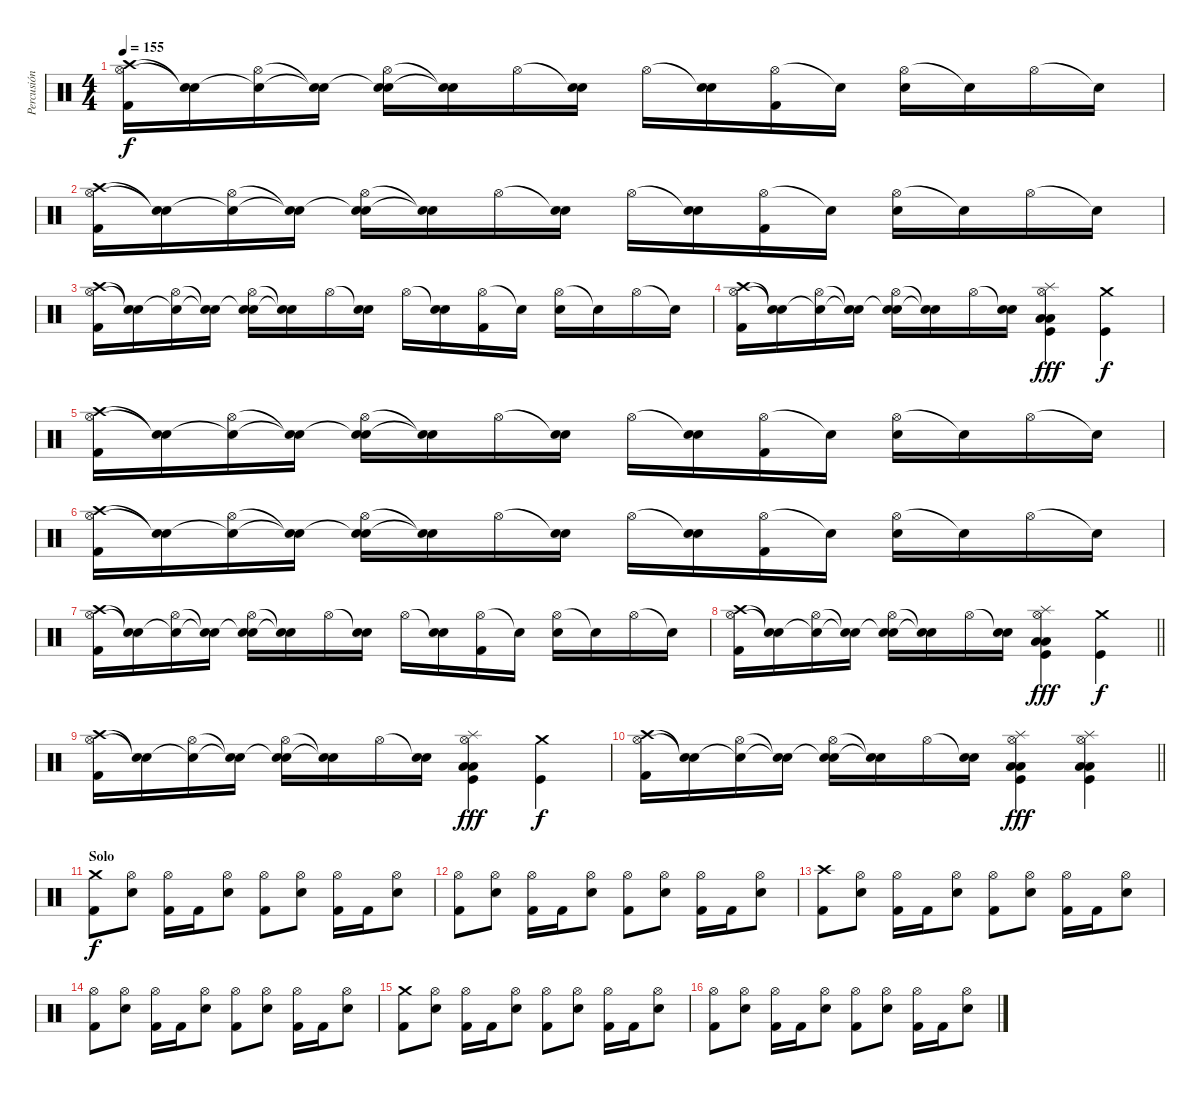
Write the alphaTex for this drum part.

\track ("Percusión (Erik)" "Percusión ") {instrument percussion}
\staff {score}
\articulation defaults
\ts (4 4)
\tempo 155
\clef neutral
\ks c
("Crash high (hit)" "Hi-Hat (open)" "Kick (hit) 2").16{dy f volume 14} ("Snare (hit)"{t} "Snare (hit)"{t}).16 ("Snare (hit)"{t} "Hi-Hat (open)").16 ("Snare (hit)"{t} "Snare (hit)"{t}).16 ("Snare (hit)"{t} "Hi-Hat (open)" "Electric Snare (hit)").16 ("Snare (hit)"{t} "Snare (hit)"{t}).16 "Hi-Hat (open)".16 ("Snare (hit)"{t} "Electric Snare (hit)").16 "Hi-Hat (open)".16 ("Snare (hit)"{t} "Electric Snare (hit)").16 ("Hi-Hat (open)" "Kick (hit) 2").16 "Snare (hit)"{t}.16 ("Hi-Hat (open)" "Electric Snare (hit)").16 "Snare (hit)"{t}.16 "Hi-Hat (open)".16 "Snare (hit)"{t}.16 |
("Crash high (hit)" "Hi-Hat (open)" "Kick (hit) 2").16{volume 14} ("Snare (hit)"{t} "Snare (hit)"{t}).16 ("Snare (hit)"{t} "Hi-Hat (open)").16 ("Snare (hit)"{t} "Snare (hit)"{t}).16 ("Snare (hit)"{t} "Hi-Hat (open)" "Electric Snare (hit)").16 ("Snare (hit)"{t} "Snare (hit)"{t}).16 "Hi-Hat (open)".16 ("Snare (hit)"{t} "Electric Snare (hit)").16 "Hi-Hat (open)".16 ("Snare (hit)"{t} "Electric Snare (hit)").16 ("Hi-Hat (open)" "Kick (hit) 2").16 "Snare (hit)"{t}.16 ("Hi-Hat (open)" "Electric Snare (hit)").16 "Snare (hit)"{t}.16 "Hi-Hat (open)".16 "Snare (hit)"{t}.16 |
("Crash high (hit)" "Hi-Hat (open)" "Kick (hit) 2").16{volume 14} ("Snare (hit)"{t} "Snare (hit)"{t}).16 ("Snare (hit)"{t} "Hi-Hat (open)").16 ("Snare (hit)"{t} "Snare (hit)"{t}).16 ("Snare (hit)"{t} "Hi-Hat (open)" "Electric Snare (hit)").16 ("Snare (hit)"{t} "Snare (hit)"{t}).16 "Hi-Hat (open)".16 ("Snare (hit)"{t} "Electric Snare (hit)").16 "Hi-Hat (open)".16 ("Snare (hit)"{t} "Electric Snare (hit)").16 ("Hi-Hat (open)" "Kick (hit) 2").16 "Snare (hit)"{t}.16 ("Hi-Hat (open)" "Electric Snare (hit)").16 "Snare (hit)"{t}.16 "Hi-Hat (open)".16 "Snare (hit)"{t}.16 |
("Crash high (hit)" "Hi-Hat (open)" "Kick (hit) 2").16{volume 14} ("Snare (hit)"{t} "Snare (hit)"{t}).16 ("Snare (hit)"{t} "Hi-Hat (open)").16 ("Snare (hit)"{t} "Snare (hit)"{t}).16 ("Snare (hit)"{t} "Hi-Hat (open)" "Electric Snare (hit)").16 ("Snare (hit)"{t} "Snare (hit)"{t}).16 "Hi-Hat (open)".16 ("Snare (hit)"{t} "Electric Snare (hit)").16 ("Hi-Hat (open)" "Low Floor Tom (hit)" "Low Tom (hit)" "Kick (hit)" "Splash (hit)").4{dy fff} ("Crash medium (hit)" "Kick (hit)").4{dy f} |
("Crash high (hit)" "Hi-Hat (open)" "Kick (hit) 2").16{volume 14} ("Snare (hit)"{t} "Snare (hit)"{t}).16 ("Snare (hit)"{t} "Hi-Hat (open)").16 ("Snare (hit)"{t} "Snare (hit)"{t}).16 ("Snare (hit)"{t} "Hi-Hat (open)" "Electric Snare (hit)").16 ("Snare (hit)"{t} "Snare (hit)"{t}).16 "Hi-Hat (open)".16 ("Snare (hit)"{t} "Electric Snare (hit)").16 "Hi-Hat (open)".16 ("Snare (hit)"{t} "Electric Snare (hit)").16 ("Hi-Hat (open)" "Kick (hit) 2").16 "Snare (hit)"{t}.16 ("Hi-Hat (open)" "Electric Snare (hit)").16 "Snare (hit)"{t}.16 "Hi-Hat (open)".16 "Snare (hit)"{t}.16 |
("Crash high (hit)" "Hi-Hat (open)" "Kick (hit) 2").16{volume 14} ("Snare (hit)"{t} "Snare (hit)"{t}).16 ("Snare (hit)"{t} "Hi-Hat (open)").16 ("Snare (hit)"{t} "Snare (hit)"{t}).16 ("Snare (hit)"{t} "Hi-Hat (open)" "Electric Snare (hit)").16 ("Snare (hit)"{t} "Snare (hit)"{t}).16 "Hi-Hat (open)".16 ("Snare (hit)"{t} "Electric Snare (hit)").16 "Hi-Hat (open)".16 ("Snare (hit)"{t} "Electric Snare (hit)").16 ("Hi-Hat (open)" "Kick (hit) 2").16 "Snare (hit)"{t}.16 ("Hi-Hat (open)" "Electric Snare (hit)").16 "Snare (hit)"{t}.16 "Hi-Hat (open)".16 "Snare (hit)"{t}.16 |
("Crash high (hit)" "Hi-Hat (open)" "Kick (hit) 2").16{volume 14} ("Snare (hit)"{t} "Snare (hit)"{t}).16 ("Snare (hit)"{t} "Hi-Hat (open)").16 ("Snare (hit)"{t} "Snare (hit)"{t}).16 ("Snare (hit)"{t} "Hi-Hat (open)" "Electric Snare (hit)").16 ("Snare (hit)"{t} "Snare (hit)"{t}).16 "Hi-Hat (open)".16 ("Snare (hit)"{t} "Electric Snare (hit)").16 "Hi-Hat (open)".16 ("Snare (hit)"{t} "Electric Snare (hit)").16 ("Hi-Hat (open)" "Kick (hit) 2").16 "Snare (hit)"{t}.16 ("Hi-Hat (open)" "Electric Snare (hit)").16 "Snare (hit)"{t}.16 "Hi-Hat (open)".16 "Snare (hit)"{t}.16 |
\barLineRight lightlight
("Crash high (hit)" "Hi-Hat (open)" "Kick (hit) 2").16{volume 14} ("Snare (hit)"{t} "Snare (hit)"{t}).16 ("Snare (hit)"{t} "Hi-Hat (open)").16 ("Snare (hit)"{t} "Snare (hit)"{t}).16 ("Snare (hit)"{t} "Hi-Hat (open)" "Electric Snare (hit)").16 ("Snare (hit)"{t} "Snare (hit)"{t}).16 "Hi-Hat (open)".16 ("Snare (hit)"{t} "Electric Snare (hit)").16 ("Hi-Hat (open)" "Low Floor Tom (hit)" "Low Tom (hit)" "Kick (hit)" "Splash (hit)").4{dy fff} ("Crash medium (hit)" "Kick (hit)").4{dy f} |
("Crash high (hit)" "Hi-Hat (open)" "Kick (hit) 2").16{volume 14} ("Snare (hit)"{t} "Snare (hit)"{t}).16 ("Snare (hit)"{t} "Hi-Hat (open)").16 ("Snare (hit)"{t} "Snare (hit)"{t}).16 ("Snare (hit)"{t} "Hi-Hat (open)" "Electric Snare (hit)").16 ("Snare (hit)"{t} "Snare (hit)"{t}).16 "Hi-Hat (open)".16 ("Snare (hit)"{t} "Electric Snare (hit)").16 ("Hi-Hat (open)" "Low Floor Tom (hit)" "Low Tom (hit)" "Kick (hit)" "Splash (hit)").4{dy fff} ("Crash medium (hit)" "Kick (hit)").4{dy f} |
\barLineRight lightlight
("Crash high (hit)" "Hi-Hat (open)" "Kick (hit) 2").16{volume 14} ("Snare (hit)"{t} "Snare (hit)"{t}).16 ("Snare (hit)"{t} "Hi-Hat (open)").16 ("Snare (hit)"{t} "Snare (hit)"{t}).16 ("Snare (hit)"{t} "Hi-Hat (open)" "Electric Snare (hit)").16 ("Snare (hit)"{t} "Snare (hit)"{t}).16 "Hi-Hat (open)".16 ("Snare (hit)"{t} "Electric Snare (hit)").16 ("Hi-Hat (open)" "Low Floor Tom (hit)" "Low Tom (hit)" "Kick (hit)" "Splash (hit)").4{dy fff} ("Hi-Hat (open)" "Low Floor Tom (hit)" "Low Tom (hit)" "Kick (hit)" "Splash (hit)").4 |
\section ("" "Solo")
\ks aminor
("Kick (hit) 2" "Crash medium (hit)").8{dy f} ("Snare (hit) 2" "Hi-Hat (open)").8 ("Kick (hit) 2" "Hi-Hat (open)").16 "Kick (hit) 2".16 ("Snare (hit) 2" "Hi-Hat (open)").8 ("Kick (hit) 2" "Hi-Hat (open)").8 ("Snare (hit) 2" "Hi-Hat (open)").8 ("Kick (hit) 2" "Hi-Hat (open)").16 "Kick (hit) 2".16 ("Snare (hit) 2" "Hi-Hat (open)").8 |
("Kick (hit) 2" "Hi-Hat (open)").8 ("Snare (hit) 2" "Hi-Hat (open)").8 ("Kick (hit) 2" "Hi-Hat (open)").16 "Kick (hit) 2".16 ("Snare (hit) 2" "Hi-Hat (open)").8 ("Kick (hit) 2" "Hi-Hat (open)").8 ("Snare (hit) 2" "Hi-Hat (open)").8 ("Kick (hit) 2" "Hi-Hat (open)").16 "Kick (hit) 2".16 ("Snare (hit) 2" "Hi-Hat (open)").8 |
("Kick (hit) 2" "Crash high (hit)").8 ("Snare (hit) 2" "Hi-Hat (open)").8 ("Kick (hit) 2" "Hi-Hat (open)").16 "Kick (hit) 2".16 ("Snare (hit) 2" "Hi-Hat (open)").8 ("Kick (hit) 2" "Hi-Hat (open)").8 ("Snare (hit) 2" "Hi-Hat (open)").8 ("Kick (hit) 2" "Hi-Hat (open)").16 "Kick (hit) 2".16 ("Snare (hit) 2" "Hi-Hat (open)").8 |
("Kick (hit) 2" "Hi-Hat (open)").8 ("Snare (hit) 2" "Hi-Hat (open)").8 ("Kick (hit) 2" "Hi-Hat (open)").16 "Kick (hit) 2".16 ("Snare (hit) 2" "Hi-Hat (open)").8 ("Kick (hit) 2" "Hi-Hat (open)").8 ("Snare (hit) 2" "Hi-Hat (open)").8 ("Kick (hit) 2" "Hi-Hat (open)").16 "Kick (hit) 2".16 ("Snare (hit) 2" "Hi-Hat (open)").8 |
("Kick (hit) 2" "Crash medium (hit)").8 ("Snare (hit) 2" "Hi-Hat (open)").8 ("Kick (hit) 2" "Hi-Hat (open)").16 "Kick (hit) 2".16 ("Snare (hit) 2" "Hi-Hat (open)").8 ("Kick (hit) 2" "Hi-Hat (open)").8 ("Snare (hit) 2" "Hi-Hat (open)").8 ("Kick (hit) 2" "Hi-Hat (open)").16 "Kick (hit) 2".16 ("Snare (hit) 2" "Hi-Hat (open)").8 |
("Kick (hit) 2" "Hi-Hat (open)").8 ("Snare (hit) 2" "Hi-Hat (open)").8 ("Kick (hit) 2" "Hi-Hat (open)").16 "Kick (hit) 2".16 ("Snare (hit) 2" "Hi-Hat (open)").8 ("Kick (hit) 2" "Hi-Hat (open)").8 ("Snare (hit) 2" "Hi-Hat (open)").8 ("Kick (hit) 2" "Hi-Hat (open)").16 "Kick (hit) 2".16 ("Snare (hit) 2" "Hi-Hat (open)").8
